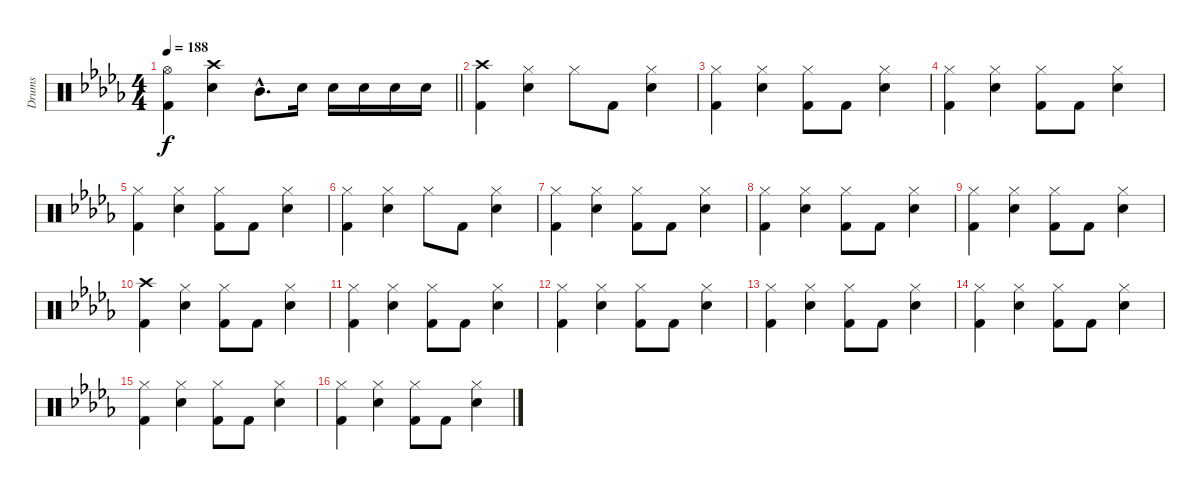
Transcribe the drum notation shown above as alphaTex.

\track ("Drums" "Drums") {instrument percussion}
\staff {score}
\articulation defaults
\ts (4 4)
\tempo 188
\clef neutral
\barLineRight lightlight
\ks bbminor
("Hi-Hat (open)" "Kick (hit) 2").4{dy f} ("Crash high (hit)" "Electric Snare (hit)").4 "Mid Tom (hit)"{hac}.8{d} "Electric Snare (hit)".16 "Electric Snare (hit)".16 "Electric Snare (hit)".16 "Electric Snare (hit)".16 "Electric Snare (hit)".16 |
("Crash high (hit)" "Kick (hit) 2").4 ("Hi-Hat (closed)" "Electric Snare (hit)").4 "Hi-Hat (closed)".8 "Kick (hit) 2".8 ("Hi-Hat (closed)" "Electric Snare (hit)").4 |
("Hi-Hat (closed)" "Kick (hit) 2").4 ("Hi-Hat (closed)" "Electric Snare (hit)").4 ("Hi-Hat (closed)" "Kick (hit) 2").8 "Kick (hit) 2".8 ("Hi-Hat (closed)" "Electric Snare (hit)").4 |
("Hi-Hat (closed)" "Kick (hit) 2").4 ("Hi-Hat (closed)" "Electric Snare (hit)").4 ("Hi-Hat (closed)" "Kick (hit) 2").8 "Kick (hit) 2".8 ("Hi-Hat (closed)" "Electric Snare (hit)").4 |
("Hi-Hat (closed)" "Kick (hit) 2").4 ("Hi-Hat (closed)" "Electric Snare (hit)").4 ("Hi-Hat (closed)" "Kick (hit) 2").8 "Kick (hit) 2".8 ("Hi-Hat (closed)" "Electric Snare (hit)").4 |
("Hi-Hat (closed)" "Kick (hit) 2").4 ("Hi-Hat (closed)" "Electric Snare (hit)").4 "Hi-Hat (closed)".8 "Kick (hit) 2".8 ("Hi-Hat (closed)" "Electric Snare (hit)").4 |
("Hi-Hat (closed)" "Kick (hit) 2").4 ("Hi-Hat (closed)" "Electric Snare (hit)").4 ("Hi-Hat (closed)" "Kick (hit) 2").8 "Kick (hit) 2".8 ("Hi-Hat (closed)" "Electric Snare (hit)").4 |
("Hi-Hat (closed)" "Kick (hit) 2").4 ("Hi-Hat (closed)" "Electric Snare (hit)").4 ("Hi-Hat (closed)" "Kick (hit) 2").8 "Kick (hit) 2".8 ("Hi-Hat (closed)" "Electric Snare (hit)").4 |
("Hi-Hat (closed)" "Kick (hit) 2").4 ("Hi-Hat (closed)" "Electric Snare (hit)").4 ("Hi-Hat (closed)" "Kick (hit) 2").8 "Kick (hit) 2".8 ("Hi-Hat (closed)" "Electric Snare (hit)").4 |
("Crash high (hit)" "Kick (hit) 2").4 ("Hi-Hat (closed)" "Electric Snare (hit)").4 ("Hi-Hat (closed)" "Kick (hit) 2").8 "Kick (hit) 2".8 ("Hi-Hat (closed)" "Electric Snare (hit)").4 |
("Hi-Hat (closed)" "Kick (hit) 2").4 ("Hi-Hat (closed)" "Electric Snare (hit)").4 ("Hi-Hat (closed)" "Kick (hit) 2").8 "Kick (hit) 2".8 ("Hi-Hat (closed)" "Electric Snare (hit)").4 |
("Hi-Hat (closed)" "Kick (hit) 2").4 ("Hi-Hat (closed)" "Electric Snare (hit)").4 ("Hi-Hat (closed)" "Kick (hit) 2").8 "Kick (hit) 2".8 ("Hi-Hat (closed)" "Electric Snare (hit)").4 |
("Hi-Hat (closed)" "Kick (hit) 2").4 ("Hi-Hat (closed)" "Electric Snare (hit)").4 ("Hi-Hat (closed)" "Kick (hit) 2").8 "Kick (hit) 2".8 ("Hi-Hat (closed)" "Electric Snare (hit)").4 |
("Hi-Hat (closed)" "Kick (hit) 2").4 ("Hi-Hat (closed)" "Electric Snare (hit)").4 ("Hi-Hat (closed)" "Kick (hit) 2").8 "Kick (hit) 2".8 ("Hi-Hat (closed)" "Electric Snare (hit)").4 |
("Hi-Hat (closed)" "Kick (hit) 2").4 ("Hi-Hat (closed)" "Electric Snare (hit)").4 ("Hi-Hat (closed)" "Kick (hit) 2").8 "Kick (hit) 2".8 ("Hi-Hat (closed)" "Electric Snare (hit)").4 |
("Hi-Hat (closed)" "Kick (hit) 2").4 ("Hi-Hat (closed)" "Electric Snare (hit)").4 ("Hi-Hat (closed)" "Kick (hit) 2").8 "Kick (hit) 2".8 ("Hi-Hat (closed)" "Electric Snare (hit)").4
